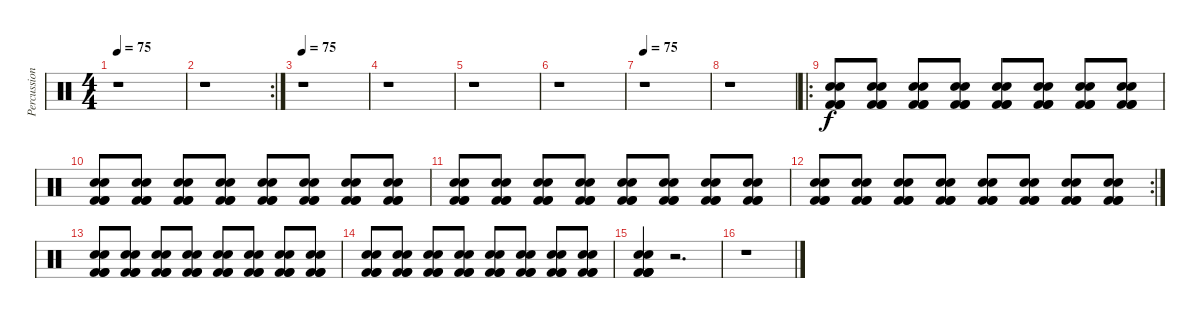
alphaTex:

\track ("Percussions" "Percussion") {instrument percussion}
\staff {score}
\articulation defaults
\ts (4 4)
\tempo 75
\clef neutral
\ks c
r.1{dy f} |
\rc 2
r.1 |
\tempo 75
r.1 |
r.1 |
r.1 |
r.1 |
\tempo 75
r.1 |
r.1 |
\ro
("Kick (hit) 2" "Kick (hit) 2" "Kick (hit) 2" "Snare (hit) 2" "Snare (hit) 2").8 ("Kick (hit) 2" "Kick (hit) 2" "Kick (hit) 2" "Snare (hit) 2" "Snare (hit) 2").8 ("Kick (hit) 2" "Kick (hit) 2" "Kick (hit) 2" "Snare (hit) 2" "Snare (hit) 2").8 ("Kick (hit) 2" "Kick (hit) 2" "Kick (hit) 2" "Snare (hit) 2" "Snare (hit) 2").8 ("Kick (hit) 2" "Kick (hit) 2" "Kick (hit) 2" "Snare (hit) 2" "Snare (hit) 2").8 ("Kick (hit) 2" "Kick (hit) 2" "Kick (hit) 2" "Snare (hit) 2" "Snare (hit) 2").8 ("Kick (hit) 2" "Kick (hit) 2" "Kick (hit) 2" "Snare (hit) 2" "Snare (hit) 2").8 ("Kick (hit) 2" "Kick (hit) 2" "Kick (hit) 2" "Snare (hit) 2" "Snare (hit) 2").8 |
("Kick (hit) 2" "Kick (hit) 2" "Kick (hit) 2" "Snare (hit) 2" "Snare (hit) 2").8 ("Kick (hit) 2" "Kick (hit) 2" "Kick (hit) 2" "Snare (hit) 2" "Snare (hit) 2").8 ("Kick (hit) 2" "Kick (hit) 2" "Kick (hit) 2" "Snare (hit) 2" "Snare (hit) 2").8 ("Kick (hit) 2" "Kick (hit) 2" "Kick (hit) 2" "Snare (hit) 2" "Snare (hit) 2").8 ("Kick (hit) 2" "Kick (hit) 2" "Kick (hit) 2" "Snare (hit) 2" "Snare (hit) 2").8 ("Kick (hit) 2" "Kick (hit) 2" "Kick (hit) 2" "Snare (hit) 2" "Snare (hit) 2").8 ("Kick (hit) 2" "Kick (hit) 2" "Kick (hit) 2" "Snare (hit) 2" "Snare (hit) 2").8 ("Kick (hit) 2" "Kick (hit) 2" "Kick (hit) 2" "Snare (hit) 2" "Snare (hit) 2").8 |
("Kick (hit) 2" "Kick (hit) 2" "Kick (hit) 2" "Snare (hit) 2" "Snare (hit) 2").8 ("Kick (hit) 2" "Kick (hit) 2" "Kick (hit) 2" "Snare (hit) 2" "Snare (hit) 2").8 ("Kick (hit) 2" "Kick (hit) 2" "Kick (hit) 2" "Snare (hit) 2" "Snare (hit) 2").8 ("Kick (hit) 2" "Kick (hit) 2" "Kick (hit) 2" "Snare (hit) 2" "Snare (hit) 2").8 ("Kick (hit) 2" "Kick (hit) 2" "Kick (hit) 2" "Snare (hit) 2" "Snare (hit) 2").8 ("Kick (hit) 2" "Kick (hit) 2" "Kick (hit) 2" "Snare (hit) 2" "Snare (hit) 2").8 ("Kick (hit) 2" "Kick (hit) 2" "Kick (hit) 2" "Snare (hit) 2" "Snare (hit) 2").8 ("Kick (hit) 2" "Kick (hit) 2" "Kick (hit) 2" "Snare (hit) 2" "Snare (hit) 2").8 |
\rc 2
("Kick (hit) 2" "Kick (hit) 2" "Kick (hit) 2" "Snare (hit) 2" "Snare (hit) 2").8 ("Kick (hit) 2" "Kick (hit) 2" "Kick (hit) 2" "Snare (hit) 2" "Snare (hit) 2").8 ("Kick (hit) 2" "Kick (hit) 2" "Kick (hit) 2" "Snare (hit) 2" "Snare (hit) 2").8 ("Kick (hit) 2" "Kick (hit) 2" "Kick (hit) 2" "Snare (hit) 2" "Snare (hit) 2").8 ("Kick (hit) 2" "Kick (hit) 2" "Kick (hit) 2" "Snare (hit) 2" "Snare (hit) 2").8 ("Kick (hit) 2" "Kick (hit) 2" "Kick (hit) 2" "Snare (hit) 2" "Snare (hit) 2").8 ("Kick (hit) 2" "Kick (hit) 2" "Kick (hit) 2" "Snare (hit) 2" "Snare (hit) 2").8 ("Kick (hit) 2" "Kick (hit) 2" "Kick (hit) 2" "Snare (hit) 2" "Snare (hit) 2").8 |
("Kick (hit) 2" "Kick (hit) 2" "Kick (hit) 2" "Snare (hit) 2" "Snare (hit) 2").8 ("Kick (hit) 2" "Kick (hit) 2" "Kick (hit) 2" "Snare (hit) 2" "Snare (hit) 2").8 ("Kick (hit) 2" "Kick (hit) 2" "Kick (hit) 2" "Snare (hit) 2" "Snare (hit) 2").8 ("Kick (hit) 2" "Kick (hit) 2" "Kick (hit) 2" "Snare (hit) 2" "Snare (hit) 2").8 ("Kick (hit) 2" "Kick (hit) 2" "Kick (hit) 2" "Snare (hit) 2" "Snare (hit) 2").8 ("Kick (hit) 2" "Kick (hit) 2" "Kick (hit) 2" "Snare (hit) 2" "Snare (hit) 2").8 ("Kick (hit) 2" "Kick (hit) 2" "Kick (hit) 2" "Snare (hit) 2" "Snare (hit) 2").8 ("Kick (hit) 2" "Kick (hit) 2" "Kick (hit) 2" "Snare (hit) 2" "Snare (hit) 2").8 |
("Kick (hit) 2" "Kick (hit) 2" "Kick (hit) 2" "Snare (hit) 2" "Snare (hit) 2").8 ("Kick (hit) 2" "Kick (hit) 2" "Kick (hit) 2" "Snare (hit) 2" "Snare (hit) 2").8 ("Kick (hit) 2" "Kick (hit) 2" "Kick (hit) 2" "Snare (hit) 2" "Snare (hit) 2").8 ("Kick (hit) 2" "Kick (hit) 2" "Kick (hit) 2" "Snare (hit) 2" "Snare (hit) 2").8 ("Kick (hit) 2" "Kick (hit) 2" "Kick (hit) 2" "Snare (hit) 2" "Snare (hit) 2").8 ("Kick (hit) 2" "Kick (hit) 2" "Kick (hit) 2" "Snare (hit) 2" "Snare (hit) 2").8 ("Kick (hit) 2" "Kick (hit) 2" "Kick (hit) 2" "Snare (hit) 2" "Snare (hit) 2").8 ("Kick (hit) 2" "Kick (hit) 2" "Kick (hit) 2" "Snare (hit) 2" "Snare (hit) 2").8 |
("Kick (hit) 2" "Kick (hit) 2" "Kick (hit) 2" "Kick (hit) 2" "Snare (hit) 2" "Snare (hit) 2").4 r.2{d} |
r.1
